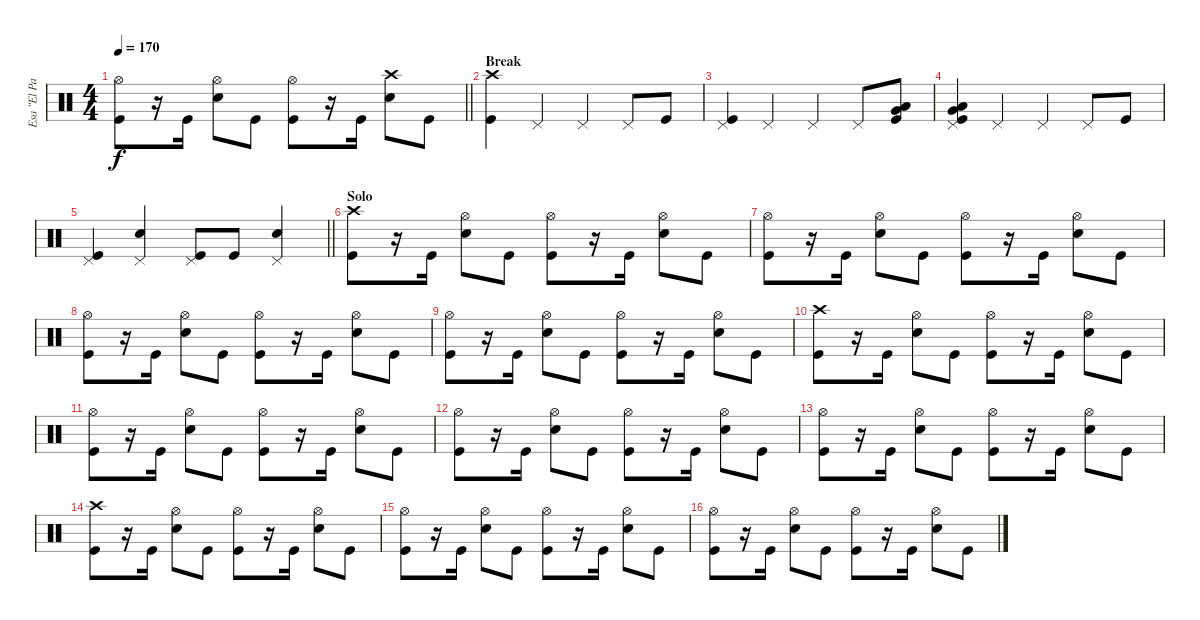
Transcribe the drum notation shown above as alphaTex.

\track ("Esa \"El Pasaderia\" Palosaari" "Esa \"El Pa") {instrument percussion}
\staff {score}
\articulation defaults
\ts (4 4)
\tempo 170
\clef neutral
\barLineRight lightlight
\ks c
("Hi-Hat (open)" "Kick (hit)").8{dy f} r.16 "Kick (hit)".16 ("Hi-Hat (open)" "Snare (hit) 2").8 "Kick (hit)".8 ("Hi-Hat (open)" "Kick (hit)").8 r.16 "Kick (hit)".16 ("Crash high (hit)" "Snare (hit) 2").8 "Kick (hit)".8 |
\section ("" "Break")
("Crash high (hit)" "Kick (hit)").4 "Pedal Hi-Hat (hit)".4 "Pedal Hi-Hat (hit)".4 "Pedal Hi-Hat (hit)".8 "Kick (hit)".8 |
("Pedal Hi-Hat (hit)" "Kick (hit)").4 "Pedal Hi-Hat (hit)".4 "Pedal Hi-Hat (hit)".4 "Pedal Hi-Hat (hit)".8 ("Low Tom (hit)" "Very Low Tom (hit)" "Kick (hit)").8 |
("Pedal Hi-Hat (hit)" "Low Tom (hit)" "Very Low Tom (hit)" "Kick (hit)").4 "Pedal Hi-Hat (hit)".4 "Pedal Hi-Hat (hit)".4 "Pedal Hi-Hat (hit)".8 "Kick (hit)".8 |
\barLineRight lightlight
("Pedal Hi-Hat (hit)" "Kick (hit)").4 ("Pedal Hi-Hat (hit)" "Snare (hit) 2").4 ("Pedal Hi-Hat (hit)" "Kick (hit)").8 "Kick (hit)".8 ("Pedal Hi-Hat (hit)" "Snare (hit) 2").4 |
\section ("" "Solo")
("Crash high (hit)" "Kick (hit)").8 r.16 "Kick (hit)".16 ("Hi-Hat (open)" "Snare (hit) 2").8 "Kick (hit)".8 ("Hi-Hat (open)" "Kick (hit)").8 r.16 "Kick (hit)".16 ("Hi-Hat (open)" "Snare (hit) 2").8 "Kick (hit)".8 |
("Hi-Hat (open)" "Kick (hit)").8 r.16 "Kick (hit)".16 ("Hi-Hat (open)" "Snare (hit) 2").8 "Kick (hit)".8 ("Hi-Hat (open)" "Kick (hit)").8 r.16 "Kick (hit)".16 ("Hi-Hat (open)" "Snare (hit) 2").8 "Kick (hit)".8 |
("Hi-Hat (open)" "Kick (hit)").8 r.16 "Kick (hit)".16 ("Hi-Hat (open)" "Snare (hit) 2").8 "Kick (hit)".8 ("Hi-Hat (open)" "Kick (hit)").8 r.16 "Kick (hit)".16 ("Hi-Hat (open)" "Snare (hit) 2").8 "Kick (hit)".8 |
("Hi-Hat (open)" "Kick (hit)").8 r.16 "Kick (hit)".16 ("Hi-Hat (open)" "Snare (hit) 2").8 "Kick (hit)".8 ("Hi-Hat (open)" "Kick (hit)").8 r.16 "Kick (hit)".16 ("Hi-Hat (open)" "Snare (hit) 2").8 "Kick (hit)".8 |
("Crash high (hit)" "Kick (hit)").8 r.16 "Kick (hit)".16 ("Hi-Hat (open)" "Snare (hit) 2").8 "Kick (hit)".8 ("Hi-Hat (open)" "Kick (hit)").8 r.16 "Kick (hit)".16 ("Hi-Hat (open)" "Snare (hit) 2").8 "Kick (hit)".8 |
("Hi-Hat (open)" "Kick (hit)").8 r.16 "Kick (hit)".16 ("Hi-Hat (open)" "Snare (hit) 2").8 "Kick (hit)".8 ("Hi-Hat (open)" "Kick (hit)").8 r.16 "Kick (hit)".16 ("Hi-Hat (open)" "Snare (hit) 2").8 "Kick (hit)".8 |
("Hi-Hat (open)" "Kick (hit)").8 r.16 "Kick (hit)".16 ("Hi-Hat (open)" "Snare (hit) 2").8 "Kick (hit)".8 ("Hi-Hat (open)" "Kick (hit)").8 r.16 "Kick (hit)".16 ("Hi-Hat (open)" "Snare (hit) 2").8 "Kick (hit)".8 |
("Hi-Hat (open)" "Kick (hit)").8 r.16 "Kick (hit)".16 ("Hi-Hat (open)" "Snare (hit) 2").8 "Kick (hit)".8 ("Hi-Hat (open)" "Kick (hit)").8 r.16 "Kick (hit)".16 ("Hi-Hat (open)" "Snare (hit) 2").8 "Kick (hit)".8 |
("Crash high (hit)" "Kick (hit)").8 r.16 "Kick (hit)".16 ("Hi-Hat (open)" "Snare (hit) 2").8 "Kick (hit)".8 ("Hi-Hat (open)" "Kick (hit)").8 r.16 "Kick (hit)".16 ("Hi-Hat (open)" "Snare (hit) 2").8 "Kick (hit)".8 |
("Hi-Hat (open)" "Kick (hit)").8 r.16 "Kick (hit)".16 ("Hi-Hat (open)" "Snare (hit) 2").8 "Kick (hit)".8 ("Hi-Hat (open)" "Kick (hit)").8 r.16 "Kick (hit)".16 ("Hi-Hat (open)" "Snare (hit) 2").8 "Kick (hit)".8 |
("Hi-Hat (open)" "Kick (hit)").8 r.16 "Kick (hit)".16 ("Hi-Hat (open)" "Snare (hit) 2").8 "Kick (hit)".8 ("Hi-Hat (open)" "Kick (hit)").8 r.16 "Kick (hit)".16 ("Hi-Hat (open)" "Snare (hit) 2").8 "Kick (hit)".8
